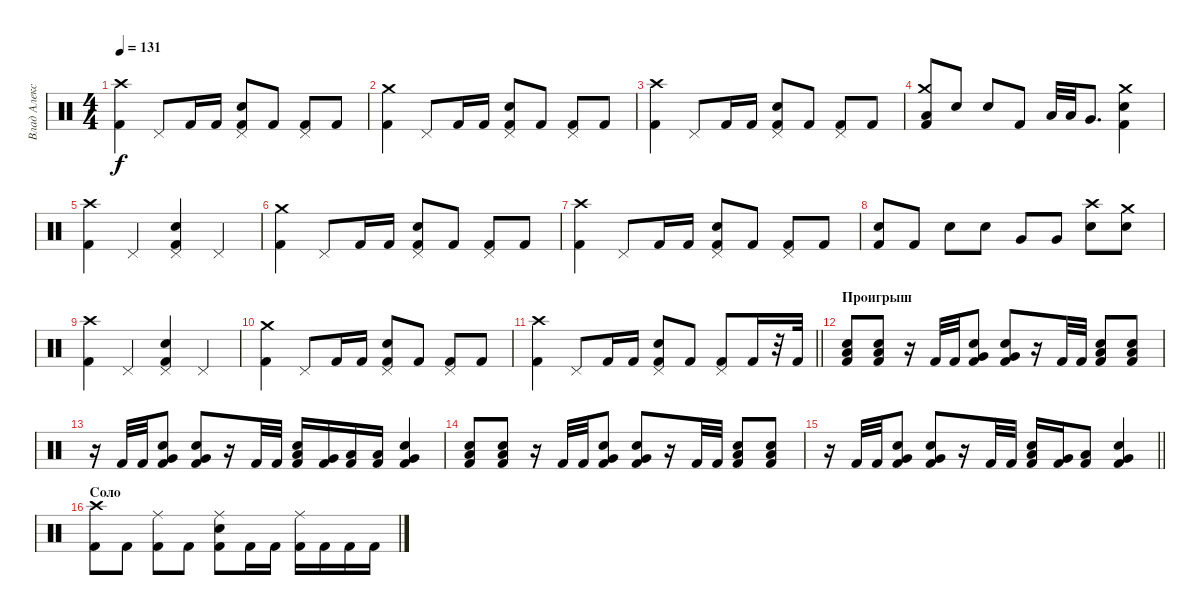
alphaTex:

\track ("Влад Алексеенко" "Влад Алекс") {instrument percussion}
\staff {score}
\articulation defaults
\ts (4 4)
\tempo 131
\clef neutral
\ks c
("Crash high (hit)" "Kick (hit) 2").4{dy f} "Pedal Hi-Hat (hit)".8 "Kick (hit) 2".16 "Kick (hit) 2".16 ("Pedal Hi-Hat (hit)" "Electric Snare (hit)" "Kick (hit) 2").8 "Kick (hit) 2".8 ("Pedal Hi-Hat (hit)" "Kick (hit) 2").8 "Kick (hit) 2".8 |
("Crash medium (hit)" "Kick (hit) 2").4 "Pedal Hi-Hat (hit)".8 "Kick (hit) 2".16 "Kick (hit) 2".16 ("Pedal Hi-Hat (hit)" "Electric Snare (hit)" "Kick (hit) 2").8 "Kick (hit) 2".8 ("Pedal Hi-Hat (hit)" "Kick (hit) 2").8 "Kick (hit) 2".8 |
("Crash high (hit)" "Kick (hit) 2").4 "Pedal Hi-Hat (hit)".8 "Kick (hit) 2".16 "Kick (hit) 2".16 ("Pedal Hi-Hat (hit)" "Electric Snare (hit)" "Kick (hit) 2").8 "Kick (hit) 2".8 ("Pedal Hi-Hat (hit)" "Kick (hit) 2").8 "Kick (hit) 2".8 |
("Low Tom (hit)" "Crash medium (hit)" "Kick (hit) 2").8 "Electric Snare (hit)".8 "Electric Snare (hit)".8 "Kick (hit) 2".8 "Low Tom (hit)".32 "Low Tom (hit)".32 "Very Low Tom (hit)".8{d} ("Crash medium (hit)" "Electric Snare (hit)" "Kick (hit) 2").4 |
("Crash high (hit)" "Kick (hit) 2").4 "Pedal Hi-Hat (hit)".4 ("Pedal Hi-Hat (hit)" "Electric Snare (hit)" "Kick (hit) 2").4 "Pedal Hi-Hat (hit)".4 |
("Crash medium (hit)" "Kick (hit) 2").4 "Pedal Hi-Hat (hit)".8 "Kick (hit) 2".16 "Kick (hit) 2".16 ("Pedal Hi-Hat (hit)" "Electric Snare (hit)" "Kick (hit) 2").8 "Kick (hit) 2".8 ("Pedal Hi-Hat (hit)" "Kick (hit) 2").8 "Kick (hit) 2".8 |
("Crash high (hit)" "Kick (hit) 2").4 "Pedal Hi-Hat (hit)".8 "Kick (hit) 2".16 "Kick (hit) 2".16 ("Pedal Hi-Hat (hit)" "Electric Snare (hit)" "Kick (hit) 2").8 "Kick (hit) 2".8 ("Pedal Hi-Hat (hit)" "Kick (hit) 2").8 "Kick (hit) 2".8 |
("Electric Snare (hit)" "Kick (hit) 2").8 "Kick (hit) 2".8 "Electric Snare (hit)".8 "Electric Snare (hit)".8 "Very Low Tom (hit)".8 "Very Low Tom (hit)".8 ("Crash high (hit)" "Electric Snare (hit)").8 ("Crash medium (hit)" "Electric Snare (hit)").8 |
("Crash high (hit)" "Kick (hit) 2").4 "Pedal Hi-Hat (hit)".4 ("Pedal Hi-Hat (hit)" "Electric Snare (hit)" "Kick (hit) 2").4 "Pedal Hi-Hat (hit)".4 |
("Crash medium (hit)" "Kick (hit) 2").4 "Pedal Hi-Hat (hit)".8 "Kick (hit) 2".16 "Kick (hit) 2".16 ("Pedal Hi-Hat (hit)" "Electric Snare (hit)" "Kick (hit) 2").8 "Kick (hit) 2".8 ("Pedal Hi-Hat (hit)" "Kick (hit) 2").8 "Kick (hit) 2".8 |
\barLineRight lightlight
("Crash high (hit)" "Kick (hit) 2").4 "Pedal Hi-Hat (hit)".8 "Kick (hit) 2".16 "Kick (hit) 2".16 ("Pedal Hi-Hat (hit)" "Electric Snare (hit)" "Kick (hit) 2").8 "Kick (hit) 2".8 ("Pedal Hi-Hat (hit)" "Kick (hit) 2").8 "Kick (hit) 2".16 r.32 "Kick (hit) 2".32 |
\section ("" "Проигрыш")
("Low Tom (hit)" "Electric Snare (hit)" "Kick (hit) 2").8 ("Low Tom (hit)" "Electric Snare (hit)" "Kick (hit) 2").8 r.16 "Kick (hit) 2".32 "Kick (hit) 2".32 ("Very Low Tom (hit)" "Electric Snare (hit)" "Kick (hit) 2").8 ("Very Low Tom (hit)" "Electric Snare (hit)" "Kick (hit) 2").8 r.16 "Kick (hit) 2".32 "Kick (hit) 2".32 ("Low Tom (hit)" "Electric Snare (hit)" "Kick (hit) 2").8 ("Low Tom (hit)" "Electric Snare (hit)" "Kick (hit) 2").8 |
r.16 "Kick (hit) 2".32 "Kick (hit) 2".32 ("Very Low Tom (hit)" "Electric Snare (hit)" "Kick (hit) 2").8 ("Very Low Tom (hit)" "Electric Snare (hit)" "Kick (hit) 2").8 r.16 "Kick (hit) 2".32 "Kick (hit) 2".32 ("Low Tom (hit)" "Electric Snare (hit)" "Kick (hit) 2").16 ("Very Low Tom (hit)" "Kick (hit) 2").16 ("Low Floor Tom (hit)" "Kick (hit) 2").16 ("Low Floor Tom (hit)" "Kick (hit) 2").16 ("Very Low Tom (hit)" "Electric Snare (hit)" "Kick (hit) 2").4 |
("Low Tom (hit)" "Electric Snare (hit)" "Kick (hit) 2").8 ("Low Tom (hit)" "Electric Snare (hit)" "Kick (hit) 2").8 r.16 "Kick (hit) 2".32 "Kick (hit) 2".32 ("Very Low Tom (hit)" "Electric Snare (hit)" "Kick (hit) 2").8 ("Very Low Tom (hit)" "Electric Snare (hit)" "Kick (hit) 2").8 r.16 "Kick (hit) 2".32 "Kick (hit) 2".32 ("Low Tom (hit)" "Electric Snare (hit)" "Kick (hit) 2").8 ("Low Tom (hit)" "Electric Snare (hit)" "Kick (hit) 2").8 |
\barLineRight lightlight
r.16 "Kick (hit) 2".32 "Kick (hit) 2".32 ("Very Low Tom (hit)" "Electric Snare (hit)" "Kick (hit) 2").8 ("Very Low Tom (hit)" "Electric Snare (hit)" "Kick (hit) 2").8 r.16 "Kick (hit) 2".32 "Kick (hit) 2".32 ("Low Tom (hit)" "Electric Snare (hit)" "Kick (hit) 2").16 ("Very Low Tom (hit)" "Kick (hit) 2").16 ("Low Floor Tom (hit)" "Kick (hit) 2").8 ("Very Low Tom (hit)" "Electric Snare (hit)" "Kick (hit) 2").4 |
\section ("" "Соло")
("Crash high (hit)" "Kick (hit) 2").8 "Kick (hit) 2".8 ("Ride (middle)" "Kick (hit) 2").8 "Kick (hit) 2".8 ("Ride (middle)" "Electric Snare (hit)" "Kick (hit) 2").8 "Kick (hit) 2".16 "Kick (hit) 2".16 ("Ride (middle)" "Kick (hit) 2").16 "Kick (hit) 2".16 "Kick (hit) 2".16 "Kick (hit) 2".16
